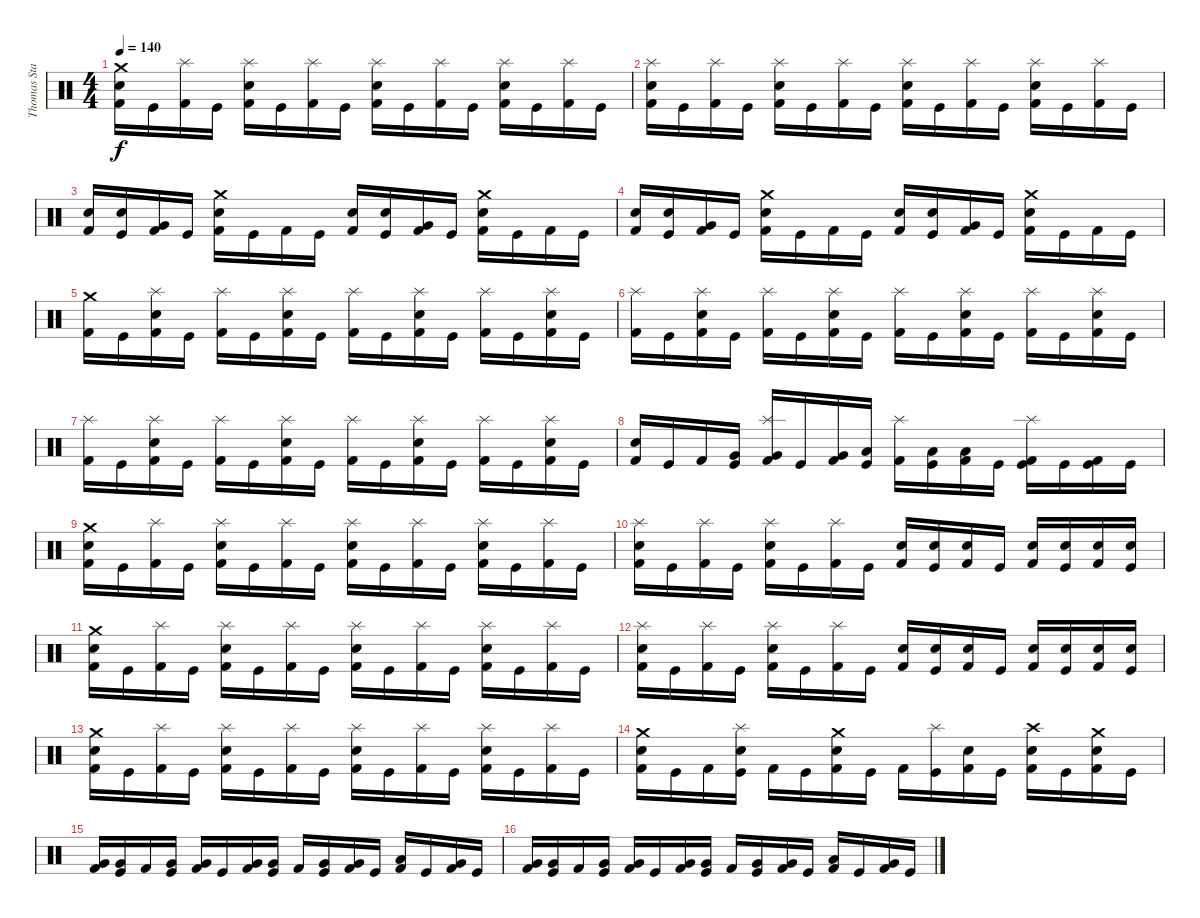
\track ("Thomas Stauch" "Thomas Sta") {instrument percussion}
\staff {score}
\articulation defaults
\ts (4 4)
\tempo 140
\clef neutral
\ks c
("Crash medium (hit)" "Electric Snare (hit)" "Kick (hit) 2").16{dy f} "Kick (hit)".16 ("Splash (hit)" "Kick (hit) 2").16 "Kick (hit)".16 ("Splash (hit)" "Electric Snare (hit)" "Kick (hit) 2").16 "Kick (hit)".16 ("Splash (hit)" "Kick (hit) 2").16 "Kick (hit)".16 ("Splash (hit)" "Electric Snare (hit)" "Kick (hit) 2").16 "Kick (hit)".16 ("Splash (hit)" "Kick (hit) 2").16 "Kick (hit)".16 ("Splash (hit)" "Electric Snare (hit)" "Kick (hit) 2").16 "Kick (hit)".16 ("Splash (hit)" "Kick (hit) 2").16 "Kick (hit)".16 |
("Splash (hit)" "Electric Snare (hit)" "Kick (hit) 2").16 "Kick (hit)".16 ("Splash (hit)" "Kick (hit) 2").16 "Kick (hit)".16 ("Splash (hit)" "Electric Snare (hit)" "Kick (hit) 2").16 "Kick (hit)".16 ("Splash (hit)" "Kick (hit) 2").16 "Kick (hit)".16 ("Splash (hit)" "Electric Snare (hit)" "Kick (hit) 2").16 "Kick (hit)".16 ("Splash (hit)" "Kick (hit) 2").16 "Kick (hit)".16 ("Splash (hit)" "Electric Snare (hit)" "Kick (hit) 2").16 "Kick (hit)".16 ("Splash (hit)" "Kick (hit) 2").16 "Kick (hit)".16 |
("Electric Snare (hit)" "Kick (hit) 2").16 ("Electric Snare (hit)" "Kick (hit)").16 ("Very Low Tom (hit)" "Kick (hit) 2").16 "Kick (hit)".16 ("Crash medium (hit)" "Electric Snare (hit)" "Kick (hit) 2").16 "Kick (hit)".16 "Kick (hit) 2".16 "Kick (hit)".16 ("Electric Snare (hit)" "Kick (hit) 2").16 ("Electric Snare (hit)" "Kick (hit)").16 ("Very Low Tom (hit)" "Kick (hit) 2").16 "Kick (hit)".16 ("Crash medium (hit)" "Electric Snare (hit)" "Kick (hit) 2").16 "Kick (hit)".16 "Kick (hit) 2".16 "Kick (hit)".16 |
("Electric Snare (hit)" "Kick (hit) 2").16 ("Electric Snare (hit)" "Kick (hit)").16 ("Very Low Tom (hit)" "Kick (hit) 2").16 "Kick (hit)".16 ("Crash medium (hit)" "Electric Snare (hit)" "Kick (hit) 2").16 "Kick (hit)".16 "Kick (hit) 2".16 "Kick (hit)".16 ("Electric Snare (hit)" "Kick (hit) 2").16 ("Electric Snare (hit)" "Kick (hit)").16 ("Very Low Tom (hit)" "Kick (hit) 2").16 "Kick (hit)".16 ("Crash medium (hit)" "Electric Snare (hit)" "Kick (hit) 2").16 "Kick (hit)".16 "Kick (hit) 2".16 "Kick (hit)".16 |
("Crash medium (hit)" "Kick (hit) 2").16 "Kick (hit)".16 ("Splash (hit)" "Electric Snare (hit)" "Kick (hit) 2").16 "Kick (hit)".16 ("Splash (hit)" "Kick (hit) 2").16 "Kick (hit)".16 ("Splash (hit)" "Electric Snare (hit)" "Kick (hit) 2").16 "Kick (hit)".16 ("Splash (hit)" "Kick (hit) 2").16 "Kick (hit)".16 ("Splash (hit)" "Electric Snare (hit)" "Kick (hit) 2").16 "Kick (hit)".16 ("Splash (hit)" "Kick (hit) 2").16 "Kick (hit)".16 ("Splash (hit)" "Electric Snare (hit)" "Kick (hit) 2").16 "Kick (hit)".16 |
("Splash (hit)" "Kick (hit) 2").16 "Kick (hit)".16 ("Splash (hit)" "Electric Snare (hit)" "Kick (hit) 2").16 "Kick (hit)".16 ("Splash (hit)" "Kick (hit) 2").16 "Kick (hit)".16 ("Splash (hit)" "Electric Snare (hit)" "Kick (hit) 2").16 "Kick (hit)".16 ("Splash (hit)" "Kick (hit) 2").16 "Kick (hit)".16 ("Splash (hit)" "Electric Snare (hit)" "Kick (hit) 2").16 "Kick (hit)".16 ("Splash (hit)" "Kick (hit) 2").16 "Kick (hit)".16 ("Splash (hit)" "Electric Snare (hit)" "Kick (hit) 2").16 "Kick (hit)".16 |
("Splash (hit)" "Kick (hit) 2").16 "Kick (hit)".16 ("Splash (hit)" "Electric Snare (hit)" "Kick (hit) 2").16 "Kick (hit)".16 ("Splash (hit)" "Kick (hit) 2").16 "Kick (hit)".16 ("Splash (hit)" "Electric Snare (hit)" "Kick (hit) 2").16 "Kick (hit)".16 ("Splash (hit)" "Kick (hit) 2").16 "Kick (hit)".16 ("Splash (hit)" "Electric Snare (hit)" "Kick (hit) 2").16 "Kick (hit)".16 ("Splash (hit)" "Kick (hit) 2").16 "Kick (hit)".16 ("Splash (hit)" "Electric Snare (hit)" "Kick (hit) 2").16 "Kick (hit)".16 |
("Electric Snare (hit)" "Kick (hit) 2").16 "Kick (hit)".16 "Kick (hit) 2".16 ("Very Low Tom (hit)" "Kick (hit)").16 ("Splash (hit)" "Very Low Tom (hit)" "Kick (hit) 2").16 "Kick (hit)".16 ("Very Low Tom (hit)" "Kick (hit) 2").16 ("Low Floor Tom (hit)" "Kick (hit)").16 ("Splash (hit)" "Kick (hit) 2").16 ("Low Floor Tom (hit)" "Kick (hit)").16 ("Low Floor Tom (hit)" "Kick (hit) 2").16 "Kick (hit)".16 ("Splash (hit)" "Kick (hit)" "Kick (hit) 2").16 "Kick (hit)".16 ("Kick (hit)" "Kick (hit) 2").16 "Kick (hit)".16 |
("Crash medium (hit)" "Electric Snare (hit)" "Kick (hit) 2").16 "Kick (hit)".16 ("Splash (hit)" "Kick (hit) 2").16 "Kick (hit)".16 ("Splash (hit)" "Electric Snare (hit)" "Kick (hit) 2").16 "Kick (hit)".16 ("Splash (hit)" "Kick (hit) 2").16 "Kick (hit)".16 ("Splash (hit)" "Electric Snare (hit)" "Kick (hit) 2").16 "Kick (hit)".16 ("Splash (hit)" "Kick (hit) 2").16 "Kick (hit)".16 ("Splash (hit)" "Electric Snare (hit)" "Kick (hit) 2").16 "Kick (hit)".16 ("Splash (hit)" "Kick (hit) 2").16 "Kick (hit)".16 |
("Splash (hit)" "Electric Snare (hit)" "Kick (hit) 2").16 "Kick (hit)".16 ("Splash (hit)" "Kick (hit) 2").16 "Kick (hit)".16 ("Splash (hit)" "Electric Snare (hit)" "Kick (hit) 2").16 "Kick (hit)".16 ("Splash (hit)" "Kick (hit) 2").16 "Kick (hit)".16 ("Electric Snare (hit)" "Kick (hit) 2").16 ("Electric Snare (hit)" "Kick (hit)").16 ("Electric Snare (hit)" "Kick (hit) 2").16 "Kick (hit)".16 ("Electric Snare (hit)" "Kick (hit) 2").16 ("Electric Snare (hit)" "Kick (hit)").16 ("Electric Snare (hit)" "Kick (hit) 2").16 ("Electric Snare (hit)" "Kick (hit)").16 |
("Crash medium (hit)" "Electric Snare (hit)" "Kick (hit) 2").16 "Kick (hit)".16 ("Splash (hit)" "Kick (hit) 2").16 "Kick (hit)".16 ("Splash (hit)" "Electric Snare (hit)" "Kick (hit) 2").16 "Kick (hit)".16 ("Splash (hit)" "Kick (hit) 2").16 "Kick (hit)".16 ("Splash (hit)" "Electric Snare (hit)" "Kick (hit) 2").16 "Kick (hit)".16 ("Splash (hit)" "Kick (hit) 2").16 "Kick (hit)".16 ("Splash (hit)" "Electric Snare (hit)" "Kick (hit) 2").16 "Kick (hit)".16 ("Splash (hit)" "Kick (hit) 2").16 "Kick (hit)".16 |
("Splash (hit)" "Electric Snare (hit)" "Kick (hit) 2").16 "Kick (hit)".16 ("Splash (hit)" "Kick (hit) 2").16 "Kick (hit)".16 ("Splash (hit)" "Electric Snare (hit)" "Kick (hit) 2").16 "Kick (hit)".16 ("Splash (hit)" "Kick (hit) 2").16 "Kick (hit)".16 ("Electric Snare (hit)" "Kick (hit) 2").16 ("Electric Snare (hit)" "Kick (hit)").16 ("Electric Snare (hit)" "Kick (hit) 2").16 "Kick (hit)".16 ("Electric Snare (hit)" "Kick (hit) 2").16 ("Electric Snare (hit)" "Kick (hit)").16 ("Electric Snare (hit)" "Kick (hit) 2").16 ("Electric Snare (hit)" "Kick (hit)").16 |
("Crash medium (hit)" "Electric Snare (hit)" "Kick (hit) 2").16 "Kick (hit)".16 ("Splash (hit)" "Kick (hit) 2").16 "Kick (hit)".16 ("Splash (hit)" "Electric Snare (hit)" "Kick (hit) 2").16 "Kick (hit)".16 ("Splash (hit)" "Kick (hit) 2").16 "Kick (hit)".16 ("Splash (hit)" "Electric Snare (hit)" "Kick (hit) 2").16 "Kick (hit)".16 ("Splash (hit)" "Kick (hit) 2").16 "Kick (hit)".16 ("Splash (hit)" "Electric Snare (hit)" "Kick (hit) 2").16 "Kick (hit)".16 ("Splash (hit)" "Kick (hit) 2").16 "Kick (hit)".16 |
("Crash medium (hit)" "Electric Snare (hit)" "Kick (hit) 2").16 "Kick (hit)".16 "Kick (hit) 2".16 ("Splash (hit)" "Electric Snare (hit)" "Kick (hit)").16 "Kick (hit) 2".16 "Kick (hit)".16 ("Crash medium (hit)" "Electric Snare (hit)" "Kick (hit) 2").16 "Kick (hit)".16 "Kick (hit) 2".16 ("Splash (hit)" "Kick (hit)").16 ("Electric Snare (hit)" "Kick (hit) 2").16 "Kick (hit)".16 ("Crash high (hit)" "Electric Snare (hit)" "Kick (hit) 2").16 "Kick (hit)".16 ("Crash medium (hit)" "Electric Snare (hit)" "Kick (hit) 2").16 "Kick (hit)".16 |
("Very Low Tom (hit)" "Kick (hit) 2").16 ("Very Low Tom (hit)" "Kick (hit)").16 "Kick (hit) 2".16 ("Very Low Tom (hit)" "Kick (hit)").16 ("Very Low Tom (hit)" "Kick (hit) 2").16 "Kick (hit)".16 ("Very Low Tom (hit)" "Kick (hit) 2").16 ("Very Low Tom (hit)" "Kick (hit)").16 "Kick (hit) 2".16 ("Very Low Tom (hit)" "Kick (hit)").16 ("Very Low Tom (hit)" "Kick (hit) 2").16 "Kick (hit)".16 ("Low Tom (hit)" "Kick (hit) 2").16 "Kick (hit)".16 ("Very Low Tom (hit)" "Kick (hit) 2").16 "Kick (hit)".16 |
("Very Low Tom (hit)" "Kick (hit) 2").16 ("Very Low Tom (hit)" "Kick (hit)").16 "Kick (hit) 2".16 ("Very Low Tom (hit)" "Kick (hit)").16 ("Very Low Tom (hit)" "Kick (hit) 2").16 "Kick (hit)".16 ("Very Low Tom (hit)" "Kick (hit) 2").16 ("Very Low Tom (hit)" "Kick (hit)").16 "Kick (hit) 2".16 ("Very Low Tom (hit)" "Kick (hit)").16 ("Very Low Tom (hit)" "Kick (hit) 2").16 "Kick (hit)".16 ("Low Tom (hit)" "Kick (hit) 2").16 "Kick (hit)".16 ("Very Low Tom (hit)" "Kick (hit) 2").16 "Kick (hit)".16
